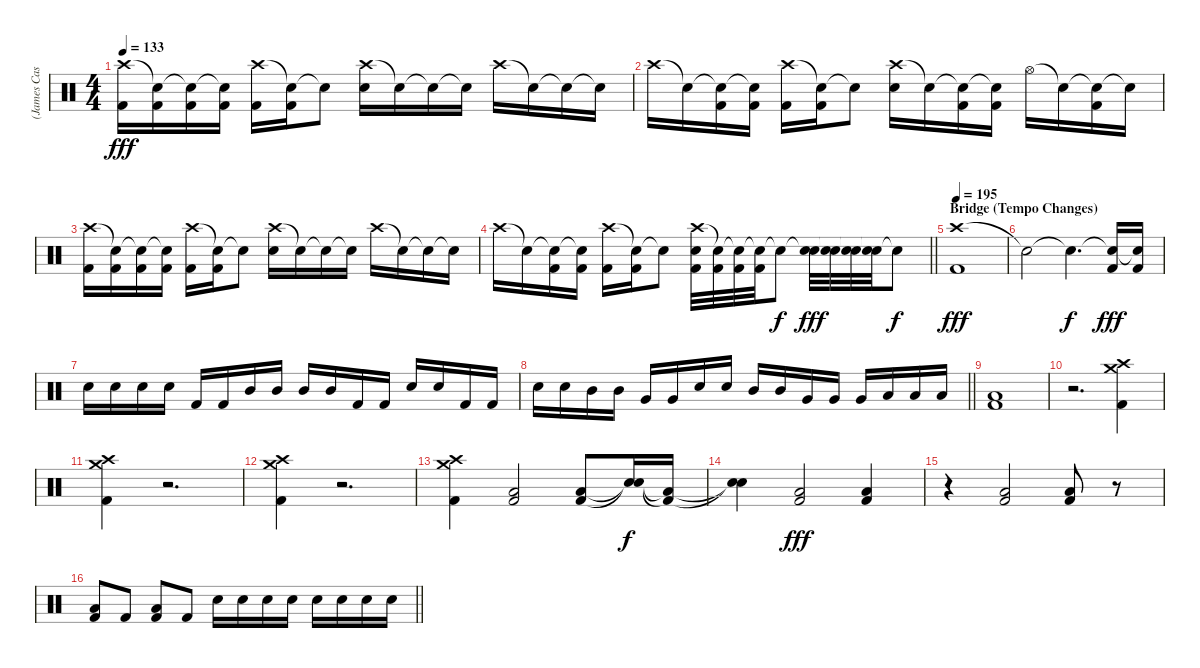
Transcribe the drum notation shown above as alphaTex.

\track ("(James Cassells) Drums" "(James Cas") {instrument percussion}
\staff {score}
\articulation defaults
\ts (4 4)
\tempo 133
\clef neutral
\ks c
("Crash high (hit)" "Kick (hit) 2").16{dy fff} ("Snare (hit)"{t} "Kick (hit) 2").16 ("Snare (hit)"{t} "Kick (hit) 2").16 ("Snare (hit)"{t} "Kick (hit) 2").16 ("Crash high (hit)" "Kick (hit) 2").16 ("Snare (hit)"{t} "Kick (hit) 2").16 "Snare (hit)"{t}.8 ("Crash high (hit)" "Electric Snare (hit)").16 "Snare (hit)"{t}.16 "Snare (hit)"{t}.16 "Snare (hit)"{t}.16 "Crash high (hit)".16 "Snare (hit)"{t}.16 "Snare (hit)"{t}.16 "Snare (hit)"{t}.16 |
"Crash high (hit)".16 "Snare (hit)"{t}.16 ("Snare (hit)"{t} "Kick (hit) 2").16 ("Snare (hit)"{t} "Kick (hit) 2").16 ("Crash high (hit)" "Kick (hit) 2").16 ("Snare (hit)"{t} "Kick (hit) 2").16 "Snare (hit)"{t}.8 ("Crash high (hit)" "Electric Snare (hit)").16 "Snare (hit)"{t}.16 ("Snare (hit)"{t} "Kick (hit) 2").16 ("Snare (hit)"{t} "Kick (hit) 2").16 "Hi-Hat (open)".16 "Snare (hit)"{t}.16 ("Snare (hit)"{t} "Kick (hit) 2").16 "Snare (hit)"{t}.16 |
("Crash high (hit)" "Kick (hit) 2").16 ("Snare (hit)"{t} "Kick (hit) 2").16 ("Snare (hit)"{t} "Kick (hit) 2").16 ("Snare (hit)"{t} "Kick (hit) 2").16 ("Crash high (hit)" "Kick (hit) 2").16 ("Snare (hit)"{t} "Kick (hit) 2").16 "Snare (hit)"{t}.8 ("Crash high (hit)" "Electric Snare (hit)").16 "Snare (hit)"{t}.16 "Snare (hit)"{t}.16 "Snare (hit)"{t}.16 "Crash high (hit)".16 "Snare (hit)"{t}.16 "Snare (hit)"{t}.16 "Snare (hit)"{t}.16 |
\barLineRight lightlight "Crash high (hit)".16 "Snare (hit)"{t}.16
("Snare (hit)"{t} "Kick (hit) 2").16 ("Snare (hit)"{t} "Kick (hit) 2").16 ("Crash high (hit)" "Kick (hit) 2").16 ("Snare (hit)"{t} "Kick (hit) 2").16 "Snare (hit)"{t}.8 ("Crash high (hit)" "Electric Snare (hit)" "Kick (hit) 2").32 ("Snare (hit)"{t} "Kick (hit) 2").32 ("Snare (hit)"{t} "Kick (hit) 2").32 ("Snare (hit)"{t} "Kick (hit) 2").32 "Snare (hit)"{t}.8{dy f} ("Snare (hit)"{t} "Electric Snare (hit)").32{dy fff} ("Snare (hit)"{t} "Electric Snare (hit)").32 ("Snare (hit)"{t} "Electric Snare (hit)").32 ("Snare (hit)"{t} "Electric Snare (hit)").32 "Snare (hit)"{t}.8{dy f} |
\section ("" "Bridge (Tempo Changes)")
\tempo 205
\tempo 195
("Crash high (hit)" "Kick (hit) 2").1{dy fff} |
"Snare (hit)"{t}.2 "Snare (hit)"{t}.4{d dy f} ("Snare (hit)"{t} "Kick (hit) 2").16{dy fff} ("Snare (hit)"{t} "Kick (hit) 2").16 |
"Electric Snare (hit)".16 "Electric Snare (hit)".16 "Electric Snare (hit)".16 "Electric Snare (hit)".16 "Kick (hit) 2".16 "Kick (hit) 2".16 "Mid Tom (hit)".16 "Mid Tom (hit)".16 "Mid Tom (hit)".16 "Mid Tom (hit)".16 "Kick (hit) 2".16 "Kick (hit) 2".16 "Electric Snare (hit)".16 "Electric Snare (hit)".16 "Kick (hit) 2".16 "Kick (hit) 2".16 |
\barLineRight lightlight "Electric Snare (hit)".16 "Electric Snare (hit)".16 "Mid Tom (hit)".16 "Mid Tom (hit)".16 "Very Low Tom (hit)".16 "Very Low Tom (hit)".16 "Electric Snare (hit)".16 "Electric Snare (hit)".16 "Mid Tom (hit)".16 "Mid Tom (hit)".16 "Very Low Tom (hit)".16 "Very Low Tom (hit)".16 "Very Low Tom (hit)".16 "Low Floor Tom (hit)".16 "Low Floor Tom (hit)".16 "Low Floor Tom (hit)".16
|
("Low Floor Tom (hit)" "Kick (hit) 2").1 |
r.2{d} ("Crash medium (hit)" "Crash high (hit)" "Kick (hit) 2").4 |
("Crash medium (hit)" "Crash high (hit)" "Kick (hit) 2").4 r.2{d} |
("Crash medium (hit)" "Crash high (hit)" "Kick (hit) 2").4 r.2{d} |
("Crash medium (hit)" "Crash high (hit)" "Kick (hit) 2").4 ("Low Floor Tom (hit)" "Kick (hit) 2").2 ("Low Floor Tom (hit)" "Kick (hit) 2").8 ("Snare (hit)"{t} "Snare (hit)"{t}).16{dy f} ("Low Floor Tom (hit)"{t} "Kick (hit) 2"{t}).16 |
("Snare (hit)"{t} "Snare (hit)"{t}).4 ("Low Floor Tom (hit)" "Kick (hit) 2").2{dy fff} ("Low Floor Tom (hit)" "Kick (hit) 2").4 |
r.4 ("Low Floor Tom (hit)" "Kick (hit) 2").2 ("Low Floor Tom (hit)" "Kick (hit) 2").8 r.8 |
\barLineRight lightlight
("Low Floor Tom (hit)" "Kick (hit) 2").8 "Kick (hit) 2".8 ("Low Floor Tom (hit)" "Kick (hit) 2").8 "Kick (hit) 2".8 "Electric Snare (hit)".16 "Electric Snare (hit)".16 "Electric Snare (hit)".16 "Electric Snare (hit)".16 "Electric Snare (hit)".16 "Electric Snare (hit)".16 "Electric Snare (hit)".16 "Electric Snare (hit)".16
